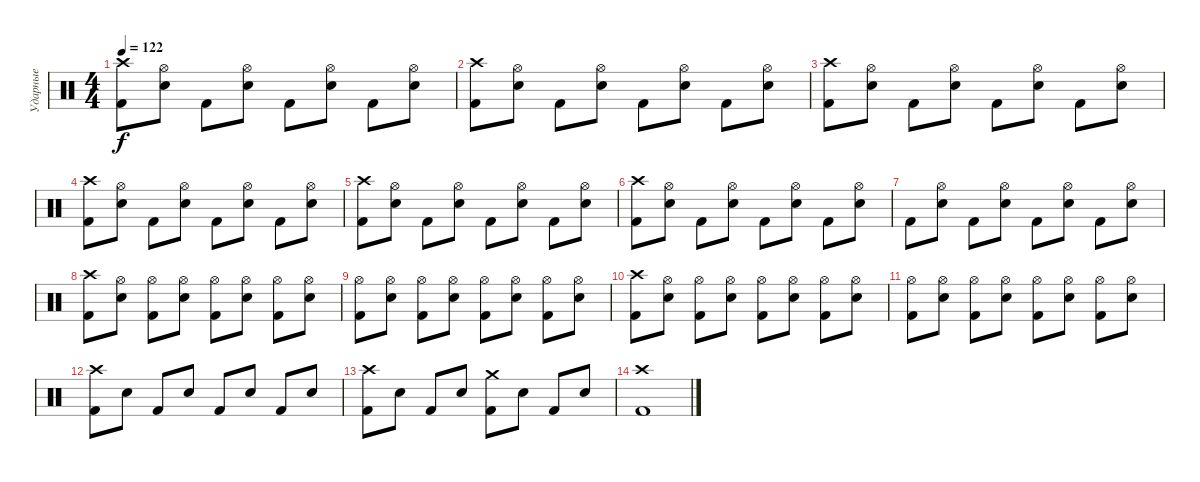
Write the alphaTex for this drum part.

\track ("Ударные" "Ударные") {instrument percussion}
\staff {score}
\articulation defaults
\ts (4 4)
\tempo 122
\clef neutral
\ks c
("Kick (hit) 2" "Crash high (hit)").8{dy f} ("Snare (hit) 2" "Hi-Hat (open)").8 "Kick (hit) 2".8 ("Snare (hit) 2" "Hi-Hat (open)").8 "Kick (hit) 2".8 ("Snare (hit) 2" "Hi-Hat (open)").8 "Kick (hit) 2".8 ("Snare (hit) 2" "Hi-Hat (open)").8 |
("Kick (hit) 2" "Crash high (hit)").8 ("Snare (hit) 2" "Hi-Hat (open)").8 "Kick (hit) 2".8 ("Snare (hit) 2" "Hi-Hat (open)").8 "Kick (hit) 2".8 ("Snare (hit) 2" "Hi-Hat (open)").8 "Kick (hit) 2".8 ("Snare (hit) 2" "Hi-Hat (open)").8 |
("Kick (hit) 2" "Crash high (hit)").8 ("Snare (hit) 2" "Hi-Hat (open)").8 "Kick (hit) 2".8 ("Snare (hit) 2" "Hi-Hat (open)").8 "Kick (hit) 2".8 ("Snare (hit) 2" "Hi-Hat (open)").8 "Kick (hit) 2".8 ("Snare (hit) 2" "Hi-Hat (open)").8 |
("Kick (hit) 2" "Crash high (hit)").8 ("Snare (hit) 2" "Hi-Hat (open)").8 "Kick (hit) 2".8 ("Snare (hit) 2" "Hi-Hat (open)").8 "Kick (hit) 2".8 ("Snare (hit) 2" "Hi-Hat (open)").8 "Kick (hit) 2".8 ("Snare (hit) 2" "Hi-Hat (open)").8 |
("Kick (hit) 2" "Crash high (hit)").8 ("Snare (hit) 2" "Hi-Hat (open)").8 "Kick (hit) 2".8 ("Snare (hit) 2" "Hi-Hat (open)").8 "Kick (hit) 2".8 ("Snare (hit) 2" "Hi-Hat (open)").8 "Kick (hit) 2".8 ("Snare (hit) 2" "Hi-Hat (open)").8 |
("Kick (hit) 2" "Crash high (hit)").8 ("Snare (hit) 2" "Hi-Hat (open)").8 "Kick (hit) 2".8 ("Snare (hit) 2" "Hi-Hat (open)").8 "Kick (hit) 2".8 ("Snare (hit) 2" "Hi-Hat (open)").8 "Kick (hit) 2".8 ("Snare (hit) 2" "Hi-Hat (open)").8 |
"Kick (hit) 2".8 ("Snare (hit) 2" "Hi-Hat (open)").8 "Kick (hit) 2".8 ("Snare (hit) 2" "Hi-Hat (open)").8 "Kick (hit) 2".8 ("Snare (hit) 2" "Hi-Hat (open)").8 "Kick (hit) 2".8 ("Snare (hit) 2" "Hi-Hat (open)").8 |
("Kick (hit) 2" "Crash high (hit)").8 ("Snare (hit) 2" "Hi-Hat (open)").8 ("Kick (hit) 2" "Hi-Hat (open)").8 ("Snare (hit) 2" "Hi-Hat (open)").8 ("Kick (hit) 2" "Hi-Hat (open)").8 ("Snare (hit) 2" "Hi-Hat (open)").8 ("Kick (hit) 2" "Hi-Hat (open)").8 ("Snare (hit) 2" "Hi-Hat (open)").8 |
("Kick (hit) 2" "Hi-Hat (open)").8 ("Snare (hit) 2" "Hi-Hat (open)").8 ("Kick (hit) 2" "Hi-Hat (open)").8 ("Snare (hit) 2" "Hi-Hat (open)").8 ("Kick (hit) 2" "Hi-Hat (open)").8 ("Snare (hit) 2" "Hi-Hat (open)").8 ("Kick (hit) 2" "Hi-Hat (open)").8 ("Snare (hit) 2" "Hi-Hat (open)").8 |
("Kick (hit) 2" "Crash high (hit)").8 ("Snare (hit) 2" "Hi-Hat (open)").8 ("Kick (hit) 2" "Hi-Hat (open)").8 ("Snare (hit) 2" "Hi-Hat (open)").8 ("Kick (hit) 2" "Hi-Hat (open)").8 ("Snare (hit) 2" "Hi-Hat (open)").8 ("Kick (hit) 2" "Hi-Hat (open)").8 ("Snare (hit) 2" "Hi-Hat (open)").8 |
("Kick (hit) 2" "Hi-Hat (open)").8 ("Snare (hit) 2" "Hi-Hat (open)").8 ("Kick (hit) 2" "Hi-Hat (open)").8 ("Snare (hit) 2" "Hi-Hat (open)").8 ("Kick (hit) 2" "Hi-Hat (open)").8 ("Snare (hit) 2" "Hi-Hat (open)").8 ("Kick (hit) 2" "Hi-Hat (open)").8 ("Snare (hit) 2" "Hi-Hat (open)").8 |
("Kick (hit) 2" "Crash high (hit)").8 "Snare (hit) 2".8 "Kick (hit) 2".8 "Snare (hit) 2".8 "Kick (hit) 2".8 "Snare (hit) 2".8 "Kick (hit) 2".8 "Snare (hit) 2".8 |
("Kick (hit) 2" "Crash high (hit)").8 "Snare (hit) 2".8 "Kick (hit) 2".8 "Snare (hit) 2".8 ("Kick (hit) 2" "Crash medium (hit)").8 "Snare (hit) 2".8 "Kick (hit) 2".8 "Snare (hit) 2".8 |
("Kick (hit) 2" "Crash high (hit)").1
